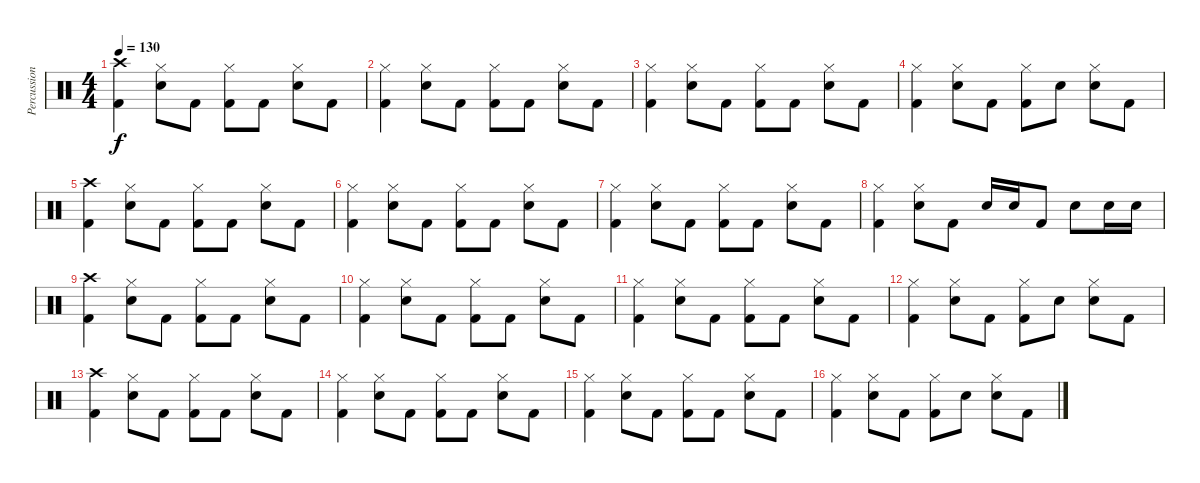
\track ("Percussion" "Percussion") {instrument percussion}
\staff {score}
\articulation defaults
\ts (4 4)
\tempo 130
\clef neutral
\ks c
("Crash high (hit)" "Kick (hit) 2").4{dy f} ("Hi-Hat (closed)" "Electric Snare (hit)").8 "Kick (hit) 2".8 ("Hi-Hat (closed)" "Kick (hit) 2").8 "Kick (hit) 2".8 ("Hi-Hat (closed)" "Electric Snare (hit)").8 "Kick (hit) 2".8 |
("Hi-Hat (closed)" "Kick (hit) 2").4 ("Hi-Hat (closed)" "Electric Snare (hit)").8 "Kick (hit) 2".8 ("Hi-Hat (closed)" "Kick (hit) 2").8 "Kick (hit) 2".8 ("Hi-Hat (closed)" "Electric Snare (hit)").8 "Kick (hit) 2".8 |
("Hi-Hat (closed)" "Kick (hit) 2").4 ("Hi-Hat (closed)" "Electric Snare (hit)").8 "Kick (hit) 2".8 ("Hi-Hat (closed)" "Kick (hit) 2").8 "Kick (hit) 2".8 ("Hi-Hat (closed)" "Electric Snare (hit)").8 "Kick (hit) 2".8 |
("Hi-Hat (closed)" "Kick (hit) 2").4 ("Hi-Hat (closed)" "Electric Snare (hit)").8 "Kick (hit) 2".8 ("Hi-Hat (closed)" "Kick (hit) 2").8 "Electric Snare (hit)".8 ("Hi-Hat (closed)" "Electric Snare (hit)").8 "Kick (hit) 2".8 |
("Crash high (hit)" "Kick (hit) 2").4 ("Hi-Hat (closed)" "Electric Snare (hit)").8 "Kick (hit) 2".8 ("Hi-Hat (closed)" "Kick (hit) 2").8 "Kick (hit) 2".8 ("Hi-Hat (closed)" "Electric Snare (hit)").8 "Kick (hit) 2".8 |
("Hi-Hat (closed)" "Kick (hit) 2").4 ("Hi-Hat (closed)" "Electric Snare (hit)").8 "Kick (hit) 2".8 ("Hi-Hat (closed)" "Kick (hit) 2").8 "Kick (hit) 2".8 ("Hi-Hat (closed)" "Electric Snare (hit)").8 "Kick (hit) 2".8 |
("Hi-Hat (closed)" "Kick (hit) 2").4 ("Hi-Hat (closed)" "Electric Snare (hit)").8 "Kick (hit) 2".8 ("Hi-Hat (closed)" "Kick (hit) 2").8 "Kick (hit) 2".8 ("Hi-Hat (closed)" "Electric Snare (hit)").8 "Kick (hit) 2".8 |
("Hi-Hat (closed)" "Kick (hit) 2").4 ("Hi-Hat (closed)" "Electric Snare (hit)").8 "Kick (hit) 2".8 "Electric Snare (hit)".16 "Electric Snare (hit)".16 "Kick (hit) 2".8 "Electric Snare (hit)".8 "Electric Snare (hit)".16 "Electric Snare (hit)".16 |
("Crash high (hit)" "Kick (hit) 2").4 ("Hi-Hat (closed)" "Electric Snare (hit)").8 "Kick (hit) 2".8 ("Hi-Hat (closed)" "Kick (hit) 2").8 "Kick (hit) 2".8 ("Hi-Hat (closed)" "Electric Snare (hit)").8 "Kick (hit) 2".8 |
("Hi-Hat (closed)" "Kick (hit) 2").4 ("Hi-Hat (closed)" "Electric Snare (hit)").8 "Kick (hit) 2".8 ("Hi-Hat (closed)" "Kick (hit) 2").8 "Kick (hit) 2".8 ("Hi-Hat (closed)" "Electric Snare (hit)").8 "Kick (hit) 2".8 |
("Hi-Hat (closed)" "Kick (hit) 2").4 ("Hi-Hat (closed)" "Electric Snare (hit)").8 "Kick (hit) 2".8 ("Hi-Hat (closed)" "Kick (hit) 2").8 "Kick (hit) 2".8 ("Hi-Hat (closed)" "Electric Snare (hit)").8 "Kick (hit) 2".8 |
("Hi-Hat (closed)" "Kick (hit) 2").4 ("Hi-Hat (closed)" "Electric Snare (hit)").8 "Kick (hit) 2".8 ("Hi-Hat (closed)" "Kick (hit) 2").8 "Electric Snare (hit)".8 ("Hi-Hat (closed)" "Electric Snare (hit)").8 "Kick (hit) 2".8 |
("Crash high (hit)" "Kick (hit) 2").4 ("Hi-Hat (closed)" "Electric Snare (hit)").8 "Kick (hit) 2".8 ("Hi-Hat (closed)" "Kick (hit) 2").8 "Kick (hit) 2".8 ("Hi-Hat (closed)" "Electric Snare (hit)").8 "Kick (hit) 2".8 |
("Hi-Hat (closed)" "Kick (hit) 2").4 ("Hi-Hat (closed)" "Electric Snare (hit)").8 "Kick (hit) 2".8 ("Hi-Hat (closed)" "Kick (hit) 2").8 "Kick (hit) 2".8 ("Hi-Hat (closed)" "Electric Snare (hit)").8 "Kick (hit) 2".8 |
("Hi-Hat (closed)" "Kick (hit) 2").4 ("Hi-Hat (closed)" "Electric Snare (hit)").8 "Kick (hit) 2".8 ("Hi-Hat (closed)" "Kick (hit) 2").8 "Kick (hit) 2".8 ("Hi-Hat (closed)" "Electric Snare (hit)").8 "Kick (hit) 2".8 |
("Hi-Hat (closed)" "Kick (hit) 2").4 ("Hi-Hat (closed)" "Electric Snare (hit)").8 "Kick (hit) 2".8 ("Hi-Hat (closed)" "Kick (hit) 2").8 "Electric Snare (hit)".8 ("Hi-Hat (closed)" "Electric Snare (hit)").8 "Kick (hit) 2".8
